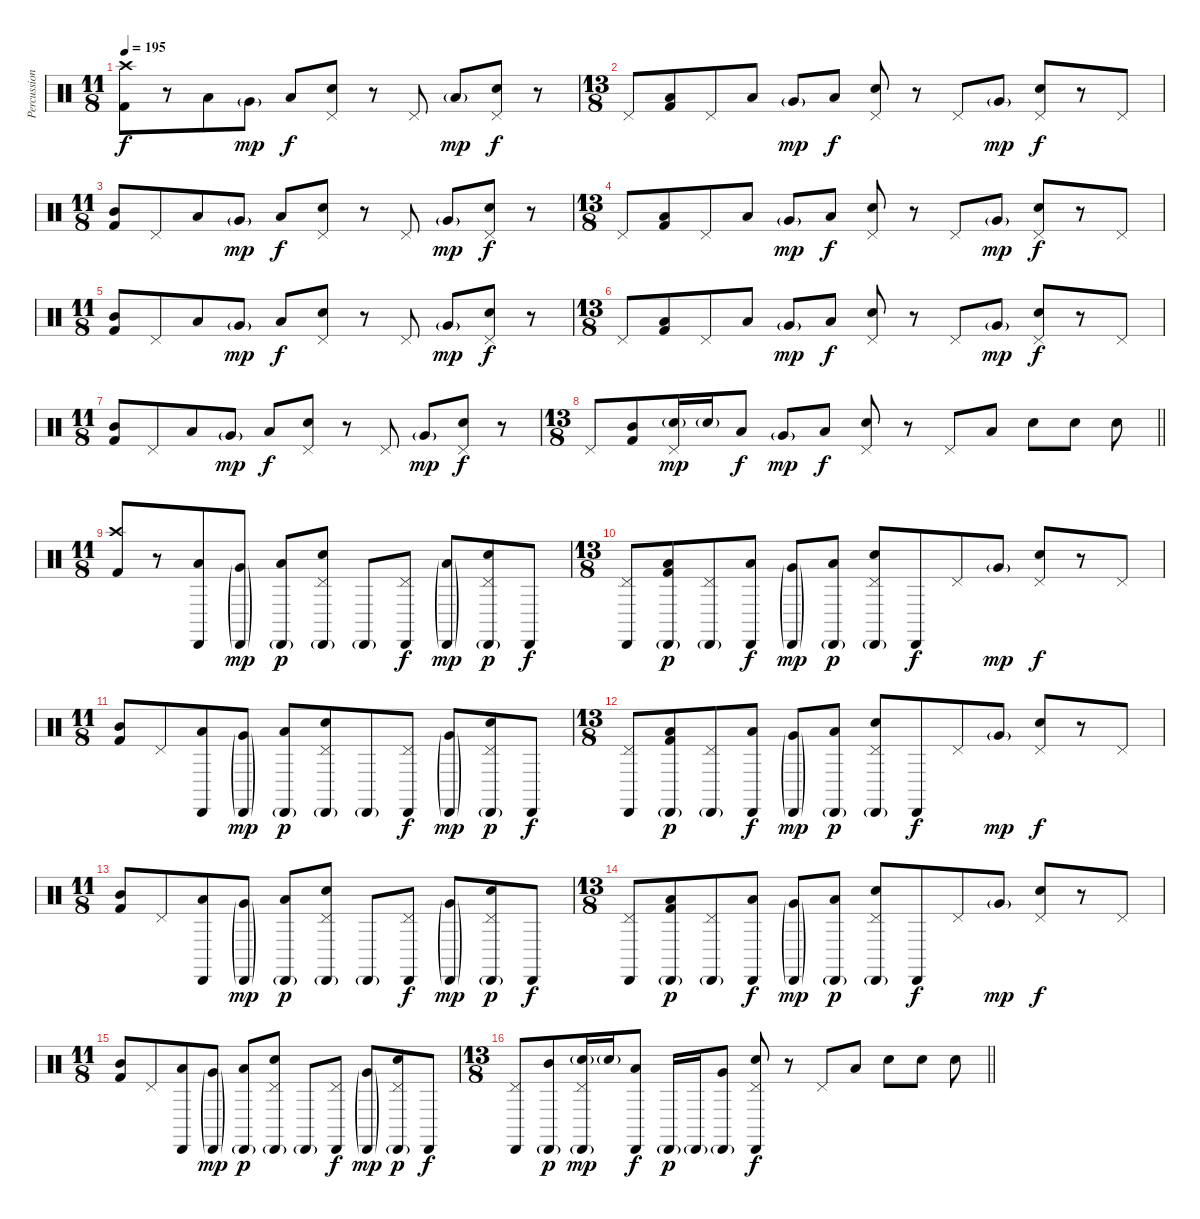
\track ("Percussion" "Percussion") {instrument percussion bank 237}
\staff {score}
\articulation defaults
\ts (11 8)
\section ("" "")
\tempo 195
\clef neutral
\ks c
("Crash high (hit)" "Kick (hit) 2").8{dy f beam merge} r.8{beam merge} "Low Tom (hit)".8 "Very Low Tom (hit)"{g}.8{dy mp} "Low Floor Tom (hit)".8{dy f} ("Pedal Hi-Hat (hit)" "Electric Snare (hit)").8 r.8 "Pedal Hi-Hat (hit)".8 "Low Floor Tom (hit)"{g}.8{dy mp} ("Pedal Hi-Hat (hit)" "Electric Snare (hit)").8{dy f beam merge} r.8 |
\ts (13 8)
"Pedal Hi-Hat (hit)".8 ("Low Floor Tom (hit)" "Kick (hit) 2").8{beam merge} "Pedal Hi-Hat (hit)".8{beam merge} "Low Tom (hit)".8 "Very Low Tom (hit)"{g}.8{dy mp} "Low Floor Tom (hit)".8{dy f} ("Pedal Hi-Hat (hit)" "Electric Snare (hit)").8 r.8{beam merge} "Pedal Hi-Hat (hit)".8 "Very Low Tom (hit)"{g}.8{dy mp} ("Pedal Hi-Hat (hit)" "Electric Snare (hit)").8{dy f beam merge} r.8{beam merge} "Pedal Hi-Hat (hit)".8 |
\ts (11 8)
("Mid Tom (hit)" "Kick (hit) 2").8{beam merge} "Pedal Hi-Hat (hit)".8{beam merge} "Low Tom (hit)".8 "Very Low Tom (hit)"{g}.8{dy mp} "Low Floor Tom (hit)".8{dy f} ("Pedal Hi-Hat (hit)" "Electric Snare (hit)").8 r.8{beam merge} "Pedal Hi-Hat (hit)".8 "Very Low Tom (hit)"{g}.8{dy mp} ("Pedal Hi-Hat (hit)" "Electric Snare (hit)").8{dy f beam merge} r.8 |
\ts (13 8)
"Pedal Hi-Hat (hit)".8 ("Low Floor Tom (hit)" "Kick (hit) 2").8{beam merge} "Pedal Hi-Hat (hit)".8{beam merge} "Low Tom (hit)".8 "Very Low Tom (hit)"{g}.8{dy mp} "Low Floor Tom (hit)".8{dy f} ("Pedal Hi-Hat (hit)" "Electric Snare (hit)").8 r.8{beam merge} "Pedal Hi-Hat (hit)".8 "Very Low Tom (hit)"{g}.8{dy mp} ("Pedal Hi-Hat (hit)" "Electric Snare (hit)").8{dy f beam merge} r.8 "Pedal Hi-Hat (hit)".8 |
\ts (11 8)
("Mid Tom (hit)" "Kick (hit) 2").8{beam merge} "Pedal Hi-Hat (hit)".8{beam merge} "Low Tom (hit)".8 "Very Low Tom (hit)"{g}.8{dy mp} "Low Floor Tom (hit)".8{dy f} ("Pedal Hi-Hat (hit)" "Electric Snare (hit)").8 r.8{beam merge} "Pedal Hi-Hat (hit)".8 "Very Low Tom (hit)"{g}.8{dy mp} ("Pedal Hi-Hat (hit)" "Electric Snare (hit)").8{dy f beam merge} r.8 |
\ts (13 8)
"Pedal Hi-Hat (hit)".8 ("Low Floor Tom (hit)" "Kick (hit) 2").8{beam merge} "Pedal Hi-Hat (hit)".8{beam merge} "Low Tom (hit)".8 "Very Low Tom (hit)"{g}.8{dy mp} "Low Floor Tom (hit)".8{dy f} ("Pedal Hi-Hat (hit)" "Electric Snare (hit)").8 r.8{beam merge} "Pedal Hi-Hat (hit)".8 "Very Low Tom (hit)"{g}.8{dy mp} ("Pedal Hi-Hat (hit)" "Electric Snare (hit)").8{dy f beam merge} r.8{beam merge} "Pedal Hi-Hat (hit)".8 |
\ts (11 8)
("Mid Tom (hit)" "Kick (hit) 2").8{beam merge} "Pedal Hi-Hat (hit)".8{beam merge} "Low Tom (hit)".8 "Very Low Tom (hit)"{g}.8{dy mp} "Low Floor Tom (hit)".8{dy f} ("Pedal Hi-Hat (hit)" "Electric Snare (hit)").8 r.8{beam merge} "Pedal Hi-Hat (hit)".8 "Very Low Tom (hit)"{g}.8{dy mp} ("Pedal Hi-Hat (hit)" "Electric Snare (hit)").8{dy f beam merge} r.8 |
\ts (13 8)
\barLineRight lightlight "Pedal Hi-Hat (hit)".8
("Mid Tom (hit)" "Kick (hit) 2").8{beam merge} ("Pedal Hi-Hat (hit)" "Electric Snare (hit)"{g}).16{dy mp} "Electric Snare (hit)"{g}.16{beam merge} "Low Tom (hit)".8{dy f} "Very Low Tom (hit)"{g}.8{dy mp} "Low Floor Tom (hit)".8{dy f} ("Pedal Hi-Hat (hit)" "Electric Snare (hit)").8 r.8{beam merge} "Pedal Hi-Hat (hit)".8 "Low Floor Tom (hit)".8 "Electric Snare (hit)".8{beam merge} "Electric Snare (hit)".8 "Electric Snare (hit)".8 |
\ts (11 8)
\section ("" "")
("Crash high (hit)" "Kick (hit) 2").8{beam merge} r.8{beam merge} ("Cabasa (hit)" "Low Tom (hit)").8 ("Cabasa (hit)"{g} "Very Low Tom (hit)"{g}).8{dy mp} ("Cabasa (hit)"{g} "Low Floor Tom (hit)").8{dy p} ("Cabasa (hit)"{g} "Pedal Hi-Hat (hit)" "Electric Snare (hit)").8 "Cabasa (hit)"{g}.8 ("Cabasa (hit)" "Pedal Hi-Hat (hit)").8{dy f} ("Cabasa (hit)"{g} "Low Floor Tom (hit)"{g}).8{dy mp} ("Cabasa (hit)"{g} "Pedal Hi-Hat (hit)" "Electric Snare (hit)").8{dy p beam merge} "Cabasa (hit)".8{dy f} |
\ts (13 8)
("Cabasa (hit)" "Pedal Hi-Hat (hit)").8 ("Cabasa (hit)"{g} "Low Floor Tom (hit)" "Kick (hit) 2").8{dy p beam merge} ("Cabasa (hit)"{g} "Pedal Hi-Hat (hit)").8{beam merge} ("Cabasa (hit)" "Low Tom (hit)").8{dy f} ("Cabasa (hit)"{g} "Very Low Tom (hit)"{g}).8{dy mp} ("Cabasa (hit)"{g} "Low Floor Tom (hit)").8{dy p} ("Cabasa (hit)"{g} "Pedal Hi-Hat (hit)" "Electric Snare (hit)").8 "Cabasa (hit)".8{dy f beam merge} "Pedal Hi-Hat (hit)".8 "Very Low Tom (hit)"{g}.8{dy mp} ("Pedal Hi-Hat (hit)" "Electric Snare (hit)").8{dy f beam merge} r.8 "Pedal Hi-Hat (hit)".8 |
\ts (11 8)
("Mid Tom (hit)" "Kick (hit) 2").8{beam merge} "Pedal Hi-Hat (hit)".8{beam merge} ("Cabasa (hit)" "Low Tom (hit)").8 ("Cabasa (hit)"{g} "Very Low Tom (hit)"{g}).8{dy mp} ("Cabasa (hit)"{g} "Low Floor Tom (hit)").8{dy p} ("Cabasa (hit)"{g} "Pedal Hi-Hat (hit)" "Electric Snare (hit)").8{beam merge} "Cabasa (hit)"{g}.8{beam merge} ("Cabasa (hit)" "Pedal Hi-Hat (hit)").8{dy f} ("Cabasa (hit)"{g} "Very Low Tom (hit)"{g}).8{dy mp} ("Cabasa (hit)"{g} "Pedal Hi-Hat (hit)" "Electric Snare (hit)").8{dy p beam merge} "Cabasa (hit)".8{dy f} |
\ts (13 8)
("Cabasa (hit)" "Pedal Hi-Hat (hit)").8 ("Cabasa (hit)"{g} "Low Floor Tom (hit)" "Kick (hit) 2").8{dy p beam merge} ("Cabasa (hit)"{g} "Pedal Hi-Hat (hit)").8{beam merge} ("Cabasa (hit)" "Low Tom (hit)").8{dy f} ("Cabasa (hit)"{g} "Very Low Tom (hit)"{g}).8{dy mp} ("Cabasa (hit)"{g} "Low Floor Tom (hit)").8{dy p} ("Cabasa (hit)"{g} "Pedal Hi-Hat (hit)" "Electric Snare (hit)").8 "Cabasa (hit)".8{dy f beam merge} "Pedal Hi-Hat (hit)".8 "Very Low Tom (hit)"{g}.8{dy mp} ("Pedal Hi-Hat (hit)" "Electric Snare (hit)").8{dy f beam merge} r.8{beam merge} "Pedal Hi-Hat (hit)".8 |
\ts (11 8)
("Mid Tom (hit)" "Kick (hit) 2").8{beam merge} "Pedal Hi-Hat (hit)".8{beam merge} ("Cabasa (hit)" "Low Tom (hit)").8 ("Cabasa (hit)"{g} "Very Low Tom (hit)"{g}).8{dy mp} ("Cabasa (hit)"{g} "Low Floor Tom (hit)").8{dy p} ("Cabasa (hit)"{g} "Pedal Hi-Hat (hit)" "Electric Snare (hit)").8 "Cabasa (hit)"{g}.8{beam merge} ("Cabasa (hit)" "Pedal Hi-Hat (hit)").8{dy f} ("Cabasa (hit)"{g} "Very Low Tom (hit)"{g}).8{dy mp} ("Cabasa (hit)"{g} "Pedal Hi-Hat (hit)" "Electric Snare (hit)").8{dy p beam merge} "Cabasa (hit)".8{dy f} |
\ts (13 8)
("Cabasa (hit)" "Pedal Hi-Hat (hit)").8 ("Cabasa (hit)"{g} "Low Floor Tom (hit)" "Kick (hit) 2").8{dy p beam merge} ("Cabasa (hit)"{g} "Pedal Hi-Hat (hit)").8{beam merge} ("Cabasa (hit)" "Low Tom (hit)").8{dy f} ("Cabasa (hit)"{g} "Very Low Tom (hit)"{g}).8{dy mp} ("Cabasa (hit)"{g} "Low Floor Tom (hit)").8{dy p} ("Cabasa (hit)"{g} "Pedal Hi-Hat (hit)" "Electric Snare (hit)").8 "Cabasa (hit)".8{dy f beam merge} "Pedal Hi-Hat (hit)".8 "Very Low Tom (hit)"{g}.8{dy mp} ("Pedal Hi-Hat (hit)" "Electric Snare (hit)").8{dy f beam merge} r.8{beam merge} "Pedal Hi-Hat (hit)".8 |
\ts (11 8)
("Mid Tom (hit)" "Kick (hit) 2").8{beam merge} "Pedal Hi-Hat (hit)".8{beam merge} ("Cabasa (hit)" "Low Tom (hit)").8 ("Cabasa (hit)"{g} "Very Low Tom (hit)"{g}).8{dy mp} ("Cabasa (hit)"{g} "Low Floor Tom (hit)").8{dy p} ("Cabasa (hit)"{g} "Pedal Hi-Hat (hit)" "Electric Snare (hit)").8 "Cabasa (hit)"{g}.8{beam merge} ("Cabasa (hit)" "Pedal Hi-Hat (hit)").8{dy f} ("Cabasa (hit)"{g} "Very Low Tom (hit)"{g}).8{dy mp} ("Cabasa (hit)"{g} "Pedal Hi-Hat (hit)" "Electric Snare (hit)").8{dy p beam merge} "Cabasa (hit)".8{dy f} |
\ts (13 8)
\barLineRight lightlight
("Cabasa (hit)" "Pedal Hi-Hat (hit)").8 ("Cabasa (hit)"{g} "Mid Tom (hit)").8{dy p beam merge} ("Cabasa (hit)"{g} "Pedal Hi-Hat (hit)" "Electric Snare (hit)"{g}).16{dy mp beam merge} "Electric Snare (hit)"{g}.16{beam merge} ("Cabasa (hit)" "Low Tom (hit)").8{dy f} "Cabasa (hit)"{g}.16{dy p} "Cabasa (hit)"{g}.16 ("Cabasa (hit)"{g} "Very Low Tom (hit)").8 ("Cabasa (hit)" "Pedal Hi-Hat (hit)" "Electric Snare (hit)").8{dy f} r.8{beam merge} "Pedal Hi-Hat (hit)".8 "Low Floor Tom (hit)".8 "Electric Snare (hit)".8{beam merge} "Electric Snare (hit)".8 "Electric Snare (hit)".8
